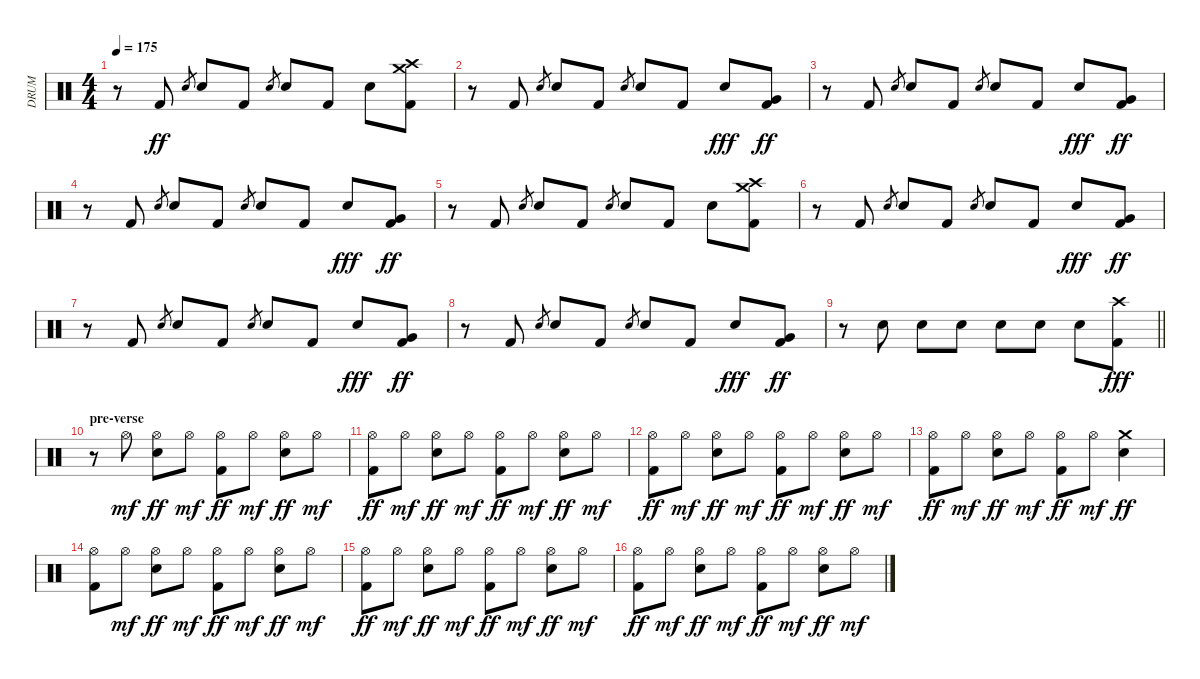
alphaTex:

\track ("DRUM" "DRUM") {instrument percussion}
\staff {score}
\articulation defaults
\ts (4 4)
\tempo 175
\clef neutral
\ks c
r.8{dy ff} "Kick (hit) 2".8 "Electric Snare (hit)".8{gr} "Snare (hit) 2".8 "Kick (hit) 2".8 "Electric Snare (hit)".8{gr} "Snare (hit) 2".8 "Kick (hit) 2".8 "Snare (hit) 2".8 ("Crash medium (hit)" "Crash high (hit)" "Kick (hit) 2").8 |
r.8 "Kick (hit) 2".8 "Electric Snare (hit)".8{gr} "Snare (hit) 2".8 "Kick (hit) 2".8 "Electric Snare (hit)".8{gr} "Snare (hit) 2".8 "Kick (hit) 2".8 "Snare (hit) 2".8{dy fff} ("Very Low Tom (hit)" "Kick (hit) 2").8{dy ff} |
r.8 "Kick (hit) 2".8 "Electric Snare (hit)".8{gr} "Snare (hit) 2".8 "Kick (hit) 2".8 "Electric Snare (hit)".8{gr} "Snare (hit) 2".8 "Kick (hit) 2".8 "Snare (hit) 2".8{dy fff} ("Very Low Tom (hit)" "Kick (hit) 2").8{dy ff} |
r.8 "Kick (hit) 2".8 "Electric Snare (hit)".8{gr} "Snare (hit) 2".8 "Kick (hit) 2".8 "Electric Snare (hit)".8{gr} "Snare (hit) 2".8 "Kick (hit) 2".8 "Snare (hit) 2".8{dy fff} ("Very Low Tom (hit)" "Kick (hit) 2").8{dy ff} |
r.8 "Kick (hit) 2".8 "Electric Snare (hit)".8{gr} "Snare (hit) 2".8 "Kick (hit) 2".8 "Electric Snare (hit)".8{gr} "Snare (hit) 2".8 "Kick (hit) 2".8 "Snare (hit) 2".8 ("Crash medium (hit)" "Crash high (hit)" "Kick (hit) 2").8 |
r.8 "Kick (hit) 2".8 "Electric Snare (hit)".8{gr} "Snare (hit) 2".8 "Kick (hit) 2".8 "Electric Snare (hit)".8{gr} "Snare (hit) 2".8 "Kick (hit) 2".8 "Snare (hit) 2".8{dy fff} ("Very Low Tom (hit)" "Kick (hit) 2").8{dy ff} |
r.8 "Kick (hit) 2".8 "Electric Snare (hit)".8{gr} "Snare (hit) 2".8 "Kick (hit) 2".8 "Electric Snare (hit)".8{gr} "Snare (hit) 2".8 "Kick (hit) 2".8 "Snare (hit) 2".8{dy fff} ("Very Low Tom (hit)" "Kick (hit) 2").8{dy ff} |
r.8 "Kick (hit) 2".8 "Electric Snare (hit)".8{gr} "Snare (hit) 2".8 "Kick (hit) 2".8 "Electric Snare (hit)".8{gr} "Snare (hit) 2".8 "Kick (hit) 2".8 "Snare (hit) 2".8{dy fff} ("Very Low Tom (hit)" "Kick (hit) 2").8{dy ff} |
\barLineRight lightlight
r.8 "Electric Snare (hit)".8 "Snare (hit) 2".8 "Electric Snare (hit)".8 "Snare (hit) 2".8 "Electric Snare (hit)".8 "Snare (hit) 2".8 ("Crash high (hit)" "Kick (hit) 2").8{dy fff} |
\section ("" "pre-verse")
r.8 "Hi-Hat (open)".8{dy mf} ("Hi-Hat (open)" "Snare (hit) 2").8{dy ff} "Hi-Hat (open)".8{dy mf} ("Hi-Hat (open)" "Kick (hit) 2").8{dy ff} "Hi-Hat (open)".8{dy mf} ("Hi-Hat (open)" "Snare (hit) 2").8{dy ff} "Hi-Hat (open)".8{dy mf} |
("Hi-Hat (open)" "Kick (hit) 2").8{dy ff} "Hi-Hat (open)".8{dy mf} ("Hi-Hat (open)" "Snare (hit) 2").8{dy ff} "Hi-Hat (open)".8{dy mf} ("Hi-Hat (open)" "Kick (hit) 2").8{dy ff} "Hi-Hat (open)".8{dy mf} ("Hi-Hat (open)" "Snare (hit) 2").8{dy ff} "Hi-Hat (open)".8{dy mf} |
("Hi-Hat (open)" "Kick (hit) 2").8{dy ff} "Hi-Hat (open)".8{dy mf} ("Hi-Hat (open)" "Snare (hit) 2").8{dy ff} "Hi-Hat (open)".8{dy mf} ("Hi-Hat (open)" "Kick (hit) 2").8{dy ff} "Hi-Hat (open)".8{dy mf} ("Hi-Hat (open)" "Snare (hit) 2").8{dy ff} "Hi-Hat (open)".8{dy mf} |
("Hi-Hat (open)" "Kick (hit) 2").8{dy ff} "Hi-Hat (open)".8{dy mf} ("Hi-Hat (open)" "Snare (hit) 2").8{dy ff} "Hi-Hat (open)".8{dy mf} ("Hi-Hat (open)" "Kick (hit) 2").8{dy ff} "Hi-Hat (open)".8{dy mf} ("Crash medium (hit)" "Snare (hit) 2").4{dy ff} |
("Hi-Hat (open)" "Kick (hit) 2").8 "Hi-Hat (open)".8{dy mf} ("Hi-Hat (open)" "Snare (hit) 2").8{dy ff} "Hi-Hat (open)".8{dy mf} ("Hi-Hat (open)" "Kick (hit) 2").8{dy ff} "Hi-Hat (open)".8{dy mf} ("Hi-Hat (open)" "Snare (hit) 2").8{dy ff} "Hi-Hat (open)".8{dy mf} |
("Hi-Hat (open)" "Kick (hit) 2").8{dy ff} "Hi-Hat (open)".8{dy mf} ("Hi-Hat (open)" "Snare (hit) 2").8{dy ff} "Hi-Hat (open)".8{dy mf} ("Hi-Hat (open)" "Kick (hit) 2").8{dy ff} "Hi-Hat (open)".8{dy mf} ("Hi-Hat (open)" "Snare (hit) 2").8{dy ff} "Hi-Hat (open)".8{dy mf} |
("Hi-Hat (open)" "Kick (hit) 2").8{dy ff} "Hi-Hat (open)".8{dy mf} ("Hi-Hat (open)" "Snare (hit) 2").8{dy ff} "Hi-Hat (open)".8{dy mf} ("Hi-Hat (open)" "Kick (hit) 2").8{dy ff} "Hi-Hat (open)".8{dy mf} ("Hi-Hat (open)" "Snare (hit) 2").8{dy ff} "Hi-Hat (open)".8{dy mf}
